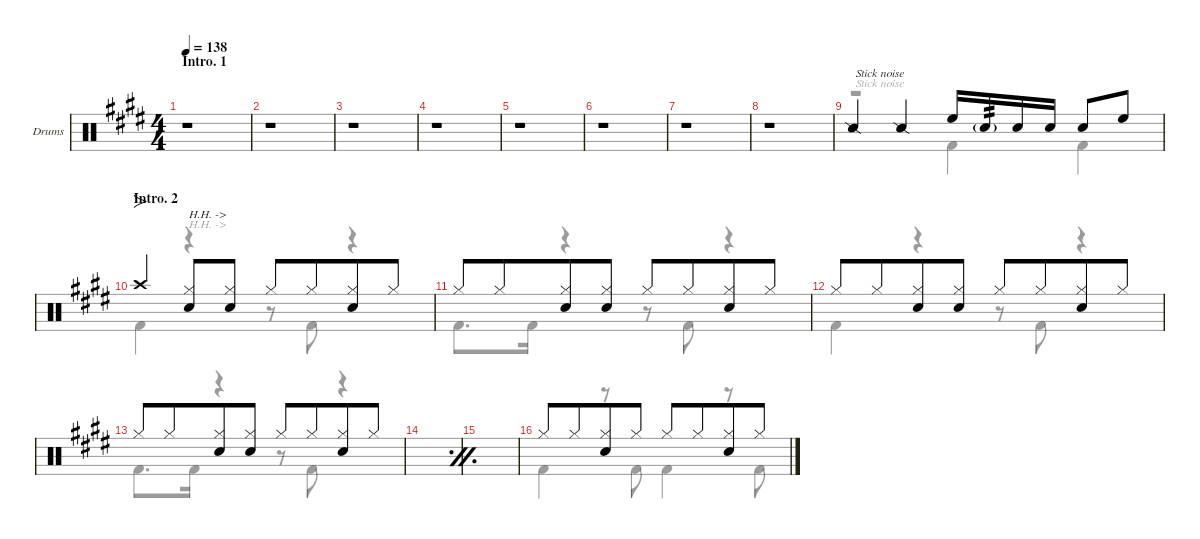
\defaultSystemsLayout 4
\hideDynamics
\bracketExtendMode nobrackets
\firstSystemTrackNameOrientation horizontal
\track ("Drums" "Drums") {defaultSystemsLayout 4 instrument percussion}
\staff {score}
\articulation defaults
\voice
\ts (4 4)
\beaming (8 4 4)
\section ("" "Intro. 1")
\tempo 138
\clef neutral
\scale
0.266619
\ks c#minor
r.1{dy f beam Up} |
\scale
0.243986 r.1{beam Up} |
\scale
0.244697 r.1{beam Up} |
\scale
0.244698 r.1{beam Up} |
\scale
0.265908 r.1{beam Up} |
\scale
0.244697 r.1{beam Up} |
\scale
0.244697 r.1{beam Up} |
\scale
0.244697 r.1{beam Up} |
"Snare (side stick) 2"{acc forcenatural}.4{txt "Stick noise" beam Up} "Snare (side stick) 2"{acc forcenatural}.4{beam Up} "High Floor Tom (hit)"{acc forcenatural}.16{beam Up} "Snare (hit) 2"{g acc forcenatural}.16{tp 2 dy mf beam Up} "Snare (hit) 2"{acc forcenatural}.16{dy f beam Up} "Snare (hit) 2"{acc forcenatural}.16{dy mf beam Up beam split} "Snare (hit) 2"{acc forcenatural}.8{dy f beam Up} "High Floor Tom (hit)"{acc forcenatural}.8{beam Up} |
\section ("" "Intro. 2")
\scale
0.266618 "Crash high (hit)"{acc forcenatural}.4{fo beam Up} ("Hi-Hat (closed)"{acc forcenatural} "Snare (hit) 2"{acc forcenatural}).8{txt "H.H. ->" beam Up} ("Hi-Hat (closed)"{acc forcenatural} "Snare (hit) 2"{acc forcenatural}).8{beam Up} "Hi-Hat (closed)"{acc forcenatural}.8{beam Up} "Hi-Hat (closed)"{acc forcenatural}.8{dy mp beam Up} ("Hi-Hat (closed)"{acc forcenatural} "Snare (hit) 2"{acc forcenatural}).8{dy f beam Up} "Hi-Hat (closed)"{acc forcenatural}.8{dy mp beam Up} |
\scale
0.244461 "Hi-Hat (closed)"{acc forcenatural}.8{dy f beam Up} "Hi-Hat (closed)"{acc forcenatural}.8{dy mp beam Up} ("Hi-Hat (closed)"{acc forcenatural} "Snare (hit) 2"{acc forcenatural}).8{dy f beam Up} ("Hi-Hat (closed)"{acc forcenatural} "Snare (hit) 2"{acc forcenatural}).8{beam Up} "Hi-Hat (closed)"{acc forcenatural}.8{beam Up} "Hi-Hat (closed)"{acc forcenatural}.8{dy mp beam Up} ("Hi-Hat (closed)"{acc forcenatural} "Snare (hit) 2"{acc forcenatural}).8{dy f beam Up} "Hi-Hat (closed)"{acc forcenatural}.8{dy mp beam Up} |
\scale
0.244461 "Hi-Hat (closed)"{acc forcenatural}.8{dy f beam Up} "Hi-Hat (closed)"{acc forcenatural}.8{dy mp beam Up} ("Hi-Hat (closed)"{acc forcenatural} "Snare (hit) 2"{acc forcenatural}).8{dy f beam Up} ("Hi-Hat (closed)"{acc forcenatural} "Snare (hit) 2"{acc forcenatural}).8{beam Up} "Hi-Hat (closed)"{acc forcenatural}.8{beam Up} "Hi-Hat (closed)"{acc forcenatural}.8{dy mp beam Up} ("Hi-Hat (closed)"{acc forcenatural} "Snare (hit) 2"{acc forcenatural}).8{dy f beam Up} "Hi-Hat (closed)"{acc forcenatural}.8{dy mp beam Up} |
\scale
0.244461 "Hi-Hat (closed)"{acc forcenatural}.8{dy f beam Up} "Hi-Hat (closed)"{acc forcenatural}.8{dy mp beam Up} ("Hi-Hat (closed)"{acc forcenatural} "Snare (hit) 2"{acc forcenatural}).8{dy f beam Up} ("Hi-Hat (closed)"{acc forcenatural} "Snare (hit) 2"{acc forcenatural}).8{beam Up} "Hi-Hat (closed)"{acc forcenatural}.8{beam Up} "Hi-Hat (closed)"{acc forcenatural}.8{dy mp beam Up} ("Hi-Hat (closed)"{acc forcenatural} "Snare (hit) 2"{acc forcenatural}).8{dy f beam Up} "Hi-Hat (closed)"{acc forcenatural}.8{dy mp beam Up} |
\simile firstofdouble
\scale
0.266618 |
\simile secondofdouble
\scale
0.244461 |
\simile none
\scale
0.244461 "Hi-Hat (closed)"{acc forcenatural}.8{dy f beam Up} "Hi-Hat (closed)"{acc forcenatural}.8{dy mp beam Up} ("Hi-Hat (closed)"{acc forcenatural} "Snare (hit) 2"{acc forcenatural}).8{dy f beam Up} "Hi-Hat (closed)"{acc forcenatural}.8{dy mp beam Up} "Hi-Hat (closed)"{acc forcenatural}.8{dy f beam Up} "Hi-Hat (closed)"{acc forcenatural}.8{dy mp beam Up} ("Hi-Hat (closed)"{acc forcenatural} "Snare (hit) 2"{acc forcenatural}).8{dy f beam Up} "Hi-Hat (closed)"{acc forcenatural}.8{dy mp beam Up}
\voice
\clef neutral
\ottava regular
\simile none
\scale
0.266619
\ks c#minor
r.1{dy f beam Down} |
\scale
0.243986 r.1{beam Down} |
\scale
0.244697 r.1{beam Down} |
\scale
0.244698 r.1{beam Down} |
\scale
0.265908 r.1{beam Down} |
\scale
0.244697 r.1{beam Down} |
\scale
0.244697 r.1{beam Down} |
\scale
0.244697 r.1{beam Down} |
r.2{txt "Stick noise" beam Down} "Kick (hit) 2"{acc forcenatural}.4{beam Down} "Kick (hit) 2"{acc forcenatural}.4{beam Down} |
\scale
0.266618 "Kick (hit) 2"{acc forcenatural}.4{beam Down} r.4{txt "H.H. ->" beam Down} r.8{beam Down} "Kick (hit) 2"{acc forcenatural}.8{beam Down} r.4{beam Down} |
\scale
0.244461 "Kick (hit) 2"{acc forcenatural}.8{d beam Down} "Kick (hit) 2"{acc forcenatural}.16{beam Down} r.4{beam Down} r.8{beam Down} "Kick (hit) 2"{acc forcenatural}.8{beam Down} r.4{beam Down} |
\scale
0.244461 "Kick (hit) 2"{acc forcenatural}.4{beam Down} r.4{beam Down} r.8{beam Down} "Kick (hit) 2"{acc forcenatural}.8{beam Down} r.4{beam Down} |
\scale
0.244461 "Kick (hit) 2"{acc forcenatural}.8{d beam Down} "Kick (hit) 2"{acc forcenatural}.16{beam Down} r.4{beam Down} r.8{beam Down} "Kick (hit) 2"{acc forcenatural}.8{beam Down} r.4{beam Down} |
\simile firstofdouble
\scale
0.266618 |
\simile secondofdouble
\scale
0.244461 |
\simile none
\scale
0.244461 "Kick (hit) 2"{acc forcenatural}.4{beam Down} r.8{beam Down} "Kick (hit) 2"{acc forcenatural}.8{beam Down} "Kick (hit) 2"{acc forcenatural}.4{beam Down} r.8{beam Down} "Kick (hit) 2"{acc forcenatural}.8{beam Down}
